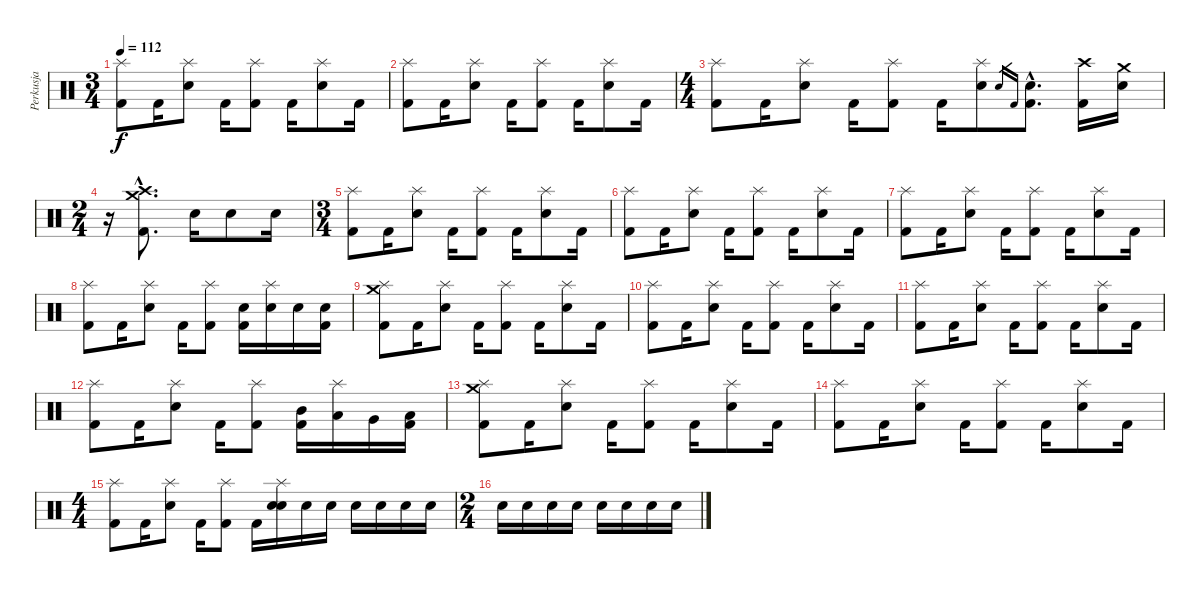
\track ("Perkusja" "Perkusja") {instrument percussion}
\staff {score}
\articulation defaults
\ts (3 4)
\tempo 112
\clef neutral
\ks c
("Splash (hit)" "Kick (hit) 2").8{dy f} "Kick (hit) 2".16 ("Splash (hit)" "Electric Snare (hit)").8 "Kick (hit) 2".16 ("Splash (hit)" "Kick (hit) 2").8 "Kick (hit) 2".16 ("Splash (hit)" "Electric Snare (hit)").8 "Kick (hit) 2".16 |
("Splash (hit)" "Kick (hit) 2").8 "Kick (hit) 2".16 ("Splash (hit)" "Electric Snare (hit)").8 "Kick (hit) 2".16 ("Splash (hit)" "Kick (hit) 2").8 "Kick (hit) 2".16 ("Splash (hit)" "Electric Snare (hit)").8 "Kick (hit) 2".16 |
\ts (4 4)
("Splash (hit)" "Kick (hit) 2").8 "Kick (hit) 2".16 ("Splash (hit)" "Electric Snare (hit)").8 "Kick (hit) 2".16 ("Splash (hit)" "Kick (hit) 2").8 "Kick (hit) 2".16 ("Splash (hit)" "Electric Snare (hit)").8 "Electric Snare (hit)".16{gr} "Kick (hit) 2".16{gr} ("Electric Snare (hit)"{hac} "Kick (hit) 2"{hac}).8{d} ("Crash high (hit)" "Kick (hit) 2").16 ("Crash medium (hit)" "Electric Snare (hit)").16 |
\ts (2 4)
r.16 ("Crash high (hit)"{hac} "Crash medium (hit)"{hac} "Kick (hit) 2"{hac}).8{d} "Electric Snare (hit)".16 "Electric Snare (hit)".8 "Electric Snare (hit)".16 |
\ts (3 4)
("Splash (hit)" "Kick (hit) 2").8 "Kick (hit) 2".16 ("Splash (hit)" "Electric Snare (hit)").8 "Kick (hit) 2".16 ("Splash (hit)" "Kick (hit) 2").8 "Kick (hit) 2".16 ("Splash (hit)" "Electric Snare (hit)").8 "Kick (hit) 2".16 |
("Splash (hit)" "Kick (hit) 2").8 "Kick (hit) 2".16 ("Splash (hit)" "Electric Snare (hit)").8 "Kick (hit) 2".16 ("Splash (hit)" "Kick (hit) 2").8 "Kick (hit) 2".16 ("Splash (hit)" "Electric Snare (hit)").8 "Kick (hit) 2".16 |
("Splash (hit)" "Kick (hit) 2").8 "Kick (hit) 2".16 ("Splash (hit)" "Electric Snare (hit)").8 "Kick (hit) 2".16 ("Splash (hit)" "Kick (hit) 2").8 "Kick (hit) 2".16 ("Splash (hit)" "Electric Snare (hit)").8 "Kick (hit) 2".16 |
("Splash (hit)" "Kick (hit) 2").8 "Kick (hit) 2".16 ("Splash (hit)" "Electric Snare (hit)").8 "Kick (hit) 2".16 ("Splash (hit)" "Kick (hit) 2").8 ("Electric Snare (hit)" "Kick (hit) 2").16 ("Splash (hit)" "Electric Snare (hit)").16 "Electric Snare (hit)".16 ("Electric Snare (hit)" "Kick (hit) 2").16 |
("Splash (hit)" "Crash medium (hit)" "Kick (hit) 2").8 "Kick (hit) 2".16 ("Splash (hit)" "Electric Snare (hit)").8 "Kick (hit) 2".16 ("Splash (hit)" "Kick (hit) 2").8 "Kick (hit) 2".16 ("Splash (hit)" "Electric Snare (hit)").8 "Kick (hit) 2".16 |
("Splash (hit)" "Kick (hit) 2").8 "Kick (hit) 2".16 ("Splash (hit)" "Electric Snare (hit)").8 "Kick (hit) 2".16 ("Splash (hit)" "Kick (hit) 2").8 "Kick (hit) 2".16 ("Splash (hit)" "Electric Snare (hit)").8 "Kick (hit) 2".16 |
("Splash (hit)" "Kick (hit) 2").8 "Kick (hit) 2".16 ("Splash (hit)" "Electric Snare (hit)").8 "Kick (hit) 2".16 ("Splash (hit)" "Kick (hit) 2").8 "Kick (hit) 2".16 ("Splash (hit)" "Electric Snare (hit)").8 "Kick (hit) 2".16 |
("Splash (hit)" "Kick (hit) 2").8 "Kick (hit) 2".16 ("Splash (hit)" "Electric Snare (hit)").8 "Kick (hit) 2".16 ("Splash (hit)" "Kick (hit) 2").8 ("Mid Tom (hit)" "Kick (hit) 2").16 ("Splash (hit)" "Low Tom (hit)").16 "Very Low Tom (hit)".16 ("Low Floor Tom (hit)" "Kick (hit) 2").16 |
("Splash (hit)" "Crash medium (hit)" "Kick (hit) 2").8 "Kick (hit) 2".16 ("Splash (hit)" "Electric Snare (hit)").8 "Kick (hit) 2".16 ("Splash (hit)" "Kick (hit) 2").8 "Kick (hit) 2".16 ("Splash (hit)" "Electric Snare (hit)").8 "Kick (hit) 2".16 |
("Splash (hit)" "Kick (hit) 2").8 "Kick (hit) 2".16 ("Splash (hit)" "Electric Snare (hit)").8 "Kick (hit) 2".16 ("Splash (hit)" "Kick (hit) 2").8 "Kick (hit) 2".16 ("Splash (hit)" "Electric Snare (hit)").8 "Kick (hit) 2".16 |
\ts (4 4)
("Splash (hit)" "Kick (hit) 2").8 "Kick (hit) 2".16 ("Splash (hit)" "Electric Snare (hit)").8 "Kick (hit) 2".16 ("Splash (hit)" "Kick (hit) 2").8 "Kick (hit) 2".16 ("Splash (hit)" "Electric Snare (hit)" "Electric Snare (hit)").16 "Electric Snare (hit)".16 "Electric Snare (hit)".16 "Electric Snare (hit)".16 "Electric Snare (hit)".16 "Electric Snare (hit)".16 "Electric Snare (hit)".16 |
\ts (2 4)
"Electric Snare (hit)".16 "Electric Snare (hit)".16 "Electric Snare (hit)".16 "Electric Snare (hit)".16 "Electric Snare (hit)".16 "Electric Snare (hit)".16 "Electric Snare (hit)".16 "Electric Snare (hit)".16
